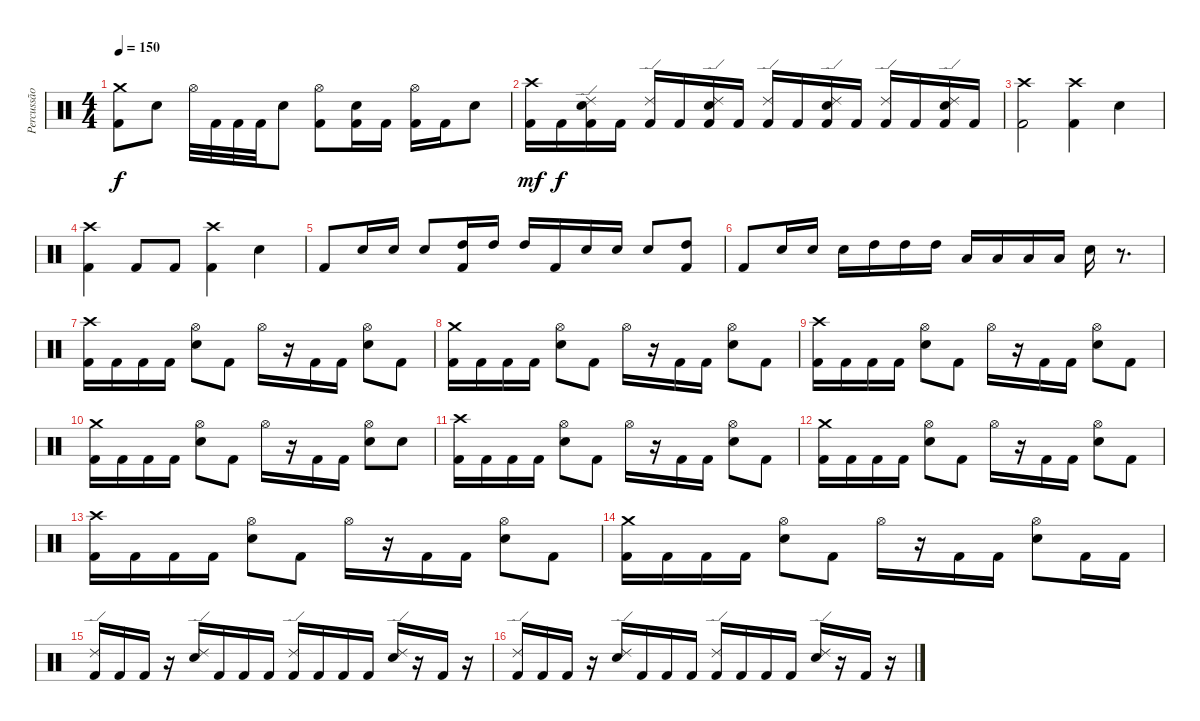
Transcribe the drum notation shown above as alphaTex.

\track ("Percussão" "Percussão") {instrument percussion}
\staff {score}
\articulation defaults
\ts (4 4)
\tempo 150
\clef neutral
\ks c
("Crash medium (hit)" "Kick (hit) 2").8{dy f} "Snare (hit) 2".8 "Hi-Hat (open)".32 "Kick (hit) 2".32 "Kick (hit) 2".32 "Kick (hit) 2".32 "Snare (hit) 2".8 ("Hi-Hat (open)" "Kick (hit) 2").8 ("Snare (hit) 2" "Kick (hit) 2").16 "Kick (hit) 2".16 ("Hi-Hat (open)" "Kick (hit) 2").16 "Kick (hit) 2".16 "Snare (hit) 2".8 |
("Crash high (hit)" "Kick (hit) 2").16{dy mf} "Kick (hit) 2".16{dy f} ("Ride (edge) 2" "Snare (hit) 2" "Kick (hit) 2").16 "Kick (hit) 2".16 ("Ride (edge) 2" "Kick (hit) 2").16 "Kick (hit) 2".16 ("Ride (edge) 2" "Snare (hit) 2" "Kick (hit) 2").16 "Kick (hit) 2".16 ("Ride (edge) 2" "Kick (hit) 2").16 "Kick (hit) 2".16 ("Ride (edge) 2" "Snare (hit) 2" "Kick (hit) 2").16 "Kick (hit) 2".16 ("Ride (edge) 2" "Kick (hit) 2").16 "Kick (hit) 2".16 ("Ride (edge) 2" "Snare (hit) 2" "Kick (hit) 2").16 "Kick (hit) 2".16 |
("Crash high (hit)" "Kick (hit) 2").2 ("Crash high (hit)" "Kick (hit) 2").4 "Snare (hit) 2".4 |
("Crash high (hit)" "Kick (hit) 2").4 "Kick (hit) 2".8 "Kick (hit) 2".8 ("Crash high (hit)" "Kick (hit) 2").4 "Snare (hit) 2".4 |
"Kick (hit) 2".8 "Snare (hit) 2".16 "Snare (hit) 2".16 "Snare (hit) 2".8 ("High Tom (hit)" "Kick (hit) 2").16 "High Tom (hit)".16 "High Tom (hit)".16 "Kick (hit) 2".16 "Snare (hit) 2".16 "Snare (hit) 2".16 "Snare (hit) 2".8 ("High Tom (hit)" "Kick (hit) 2").8 |
"Kick (hit) 2".8 "Snare (hit) 2".16 "Snare (hit) 2".16 "Snare (hit) 2".16 "High Tom (hit)".16 "High Tom (hit)".16 "High Tom (hit)".16 "Low Tom (hit)".16 "Low Tom (hit)".16 "Low Tom (hit)".16 "Low Tom (hit)".16 "Snare (hit) 2".16 r.8{d} |
("Crash high (hit)" "Kick (hit) 2").16 "Kick (hit) 2".16 "Kick (hit) 2".16 "Kick (hit) 2".16 ("Hi-Hat (open)" "Snare (hit) 2").8 "Kick (hit) 2".8 "Hi-Hat (open)".16 r.16 "Kick (hit) 2".16 "Kick (hit) 2".16 ("Hi-Hat (open)" "Snare (hit) 2").8 "Kick (hit) 2".8 |
("Crash medium (hit)" "Kick (hit) 2").16 "Kick (hit) 2".16 "Kick (hit) 2".16 "Kick (hit) 2".16 ("Hi-Hat (open)" "Snare (hit) 2").8 "Kick (hit) 2".8 "Hi-Hat (open)".16 r.16 "Kick (hit) 2".16 "Kick (hit) 2".16 ("Hi-Hat (open)" "Snare (hit) 2").8 "Kick (hit) 2".8 |
("Crash high (hit)" "Kick (hit) 2").16 "Kick (hit) 2".16 "Kick (hit) 2".16 "Kick (hit) 2".16 ("Hi-Hat (open)" "Snare (hit) 2").8 "Kick (hit) 2".8 "Hi-Hat (open)".16 r.16 "Kick (hit) 2".16 "Kick (hit) 2".16 ("Hi-Hat (open)" "Snare (hit) 2").8 "Kick (hit) 2".8 |
("Crash medium (hit)" "Kick (hit) 2").16 "Kick (hit) 2".16 "Kick (hit) 2".16 "Kick (hit) 2".16 ("Hi-Hat (open)" "Snare (hit) 2").8 "Kick (hit) 2".8 "Hi-Hat (open)".16 r.16 "Kick (hit) 2".16 "Kick (hit) 2".16 ("Hi-Hat (open)" "Snare (hit) 2").8 "Snare (hit) 2".8 |
("Crash high (hit)" "Kick (hit) 2").16 "Kick (hit) 2".16 "Kick (hit) 2".16 "Kick (hit) 2".16 ("Hi-Hat (open)" "Snare (hit) 2").8 "Kick (hit) 2".8 "Hi-Hat (open)".16 r.16 "Kick (hit) 2".16 "Kick (hit) 2".16 ("Hi-Hat (open)" "Snare (hit) 2").8 "Kick (hit) 2".8 |
("Crash medium (hit)" "Kick (hit) 2").16 "Kick (hit) 2".16 "Kick (hit) 2".16 "Kick (hit) 2".16 ("Hi-Hat (open)" "Snare (hit) 2").8 "Kick (hit) 2".8 "Hi-Hat (open)".16 r.16 "Kick (hit) 2".16 "Kick (hit) 2".16 ("Hi-Hat (open)" "Snare (hit) 2").8 "Kick (hit) 2".8 |
("Crash high (hit)" "Kick (hit) 2").16 "Kick (hit) 2".16 "Kick (hit) 2".16 "Kick (hit) 2".16 ("Hi-Hat (open)" "Snare (hit) 2").8 "Kick (hit) 2".8 "Hi-Hat (open)".16 r.16 "Kick (hit) 2".16 "Kick (hit) 2".16 ("Hi-Hat (open)" "Snare (hit) 2").8 "Kick (hit) 2".8 |
("Crash medium (hit)" "Kick (hit) 2").16 "Kick (hit) 2".16 "Kick (hit) 2".16 "Kick (hit) 2".16 ("Hi-Hat (open)" "Snare (hit) 2").8 "Kick (hit) 2".8 "Hi-Hat (open)".16 r.16 "Kick (hit) 2".16 "Kick (hit) 2".16 ("Hi-Hat (open)" "Snare (hit) 2").8 "Kick (hit) 2".16 "Kick (hit) 2".16 |
("Ride (edge) 2" "Kick (hit) 2").16 "Kick (hit) 2".16 "Kick (hit) 2".16 r.16 ("Ride (edge) 2" "Snare (hit) 2").16 "Kick (hit) 2".16 "Kick (hit) 2".16 "Kick (hit) 2".16 ("Ride (edge) 2" "Kick (hit) 2").16 "Kick (hit) 2".16 "Kick (hit) 2".16 "Kick (hit) 2".16 ("Ride (edge) 2" "Snare (hit) 2").16 r.16 "Kick (hit) 2".16 r.16 |
("Ride (edge) 2" "Kick (hit) 2").16 "Kick (hit) 2".16 "Kick (hit) 2".16 r.16 ("Ride (edge) 2" "Snare (hit) 2").16 "Kick (hit) 2".16 "Kick (hit) 2".16 "Kick (hit) 2".16 ("Ride (edge) 2" "Kick (hit) 2").16 "Kick (hit) 2".16 "Kick (hit) 2".16 "Kick (hit) 2".16 ("Ride (edge) 2" "Snare (hit) 2").16 r.16 "Kick (hit) 2".16 r.16
